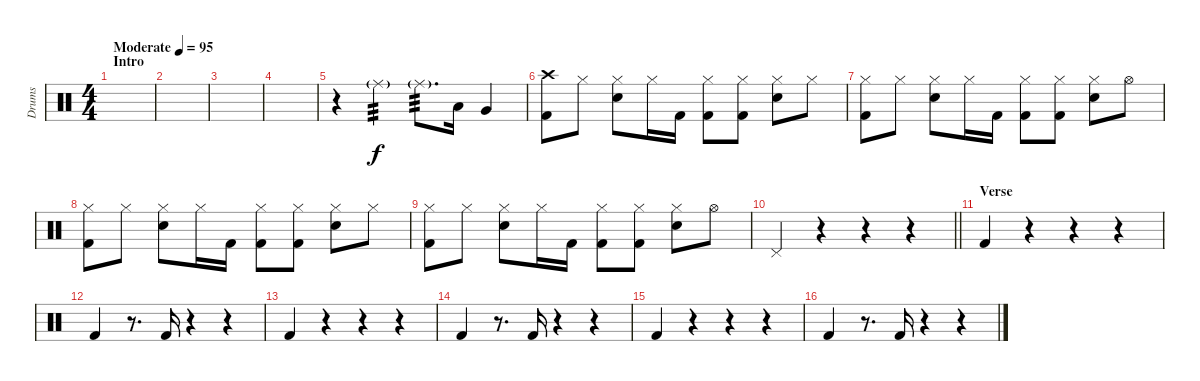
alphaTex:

\track ("Drums" "Drums") {instrument percussion}
\staff {score}
\articulation defaults
\ts (4 4)
\section ("" "Intro")
\tempo (95 "Moderate")
\clef neutral
\ks c
|
|
|
|
r.4 "Ride (middle)"{g}.4{tp 3} "Ride (middle)"{g}.8{d tp 3} "Low Tom (hit)".16{dy f} "Very Low Tom (hit)".4 |
("Crash high (hit)" "Kick (hit) 2").8 "Hi-Hat (closed)".8 ("Hi-Hat (closed)" "Electric Snare (hit)").8 "Hi-Hat (closed)".16 "Kick (hit) 2".16 ("Hi-Hat (closed)" "Kick (hit) 2").8 ("Hi-Hat (closed)" "Kick (hit) 2").8 ("Hi-Hat (closed)" "Electric Snare (hit)").8{txt ""} "Hi-Hat (closed)".8 |
("Hi-Hat (closed)" "Kick (hit) 2").8 "Hi-Hat (closed)".8 ("Hi-Hat (closed)" "Electric Snare (hit)").8 "Hi-Hat (closed)".16 "Kick (hit) 2".16 ("Hi-Hat (closed)" "Kick (hit) 2").8 ("Hi-Hat (closed)" "Kick (hit) 2").8 ("Hi-Hat (closed)" "Electric Snare (hit)").8 "Hi-Hat (open)".8 |
("Hi-Hat (closed)" "Kick (hit) 2").8 "Hi-Hat (closed)".8 ("Hi-Hat (closed)" "Electric Snare (hit)").8 "Hi-Hat (closed)".16 "Kick (hit) 2".16 ("Hi-Hat (closed)" "Kick (hit) 2").8 ("Hi-Hat (closed)" "Kick (hit) 2").8 ("Hi-Hat (closed)" "Electric Snare (hit)").8 "Hi-Hat (closed)".8 |
("Hi-Hat (closed)" "Kick (hit) 2").8 "Hi-Hat (closed)".8 ("Hi-Hat (closed)" "Electric Snare (hit)").8 "Hi-Hat (closed)".16 "Kick (hit) 2".16 ("Hi-Hat (closed)" "Kick (hit) 2").8 ("Hi-Hat (closed)" "Kick (hit) 2").8 ("Hi-Hat (closed)" "Electric Snare (hit)").8 "Hi-Hat (open)".8 |
\barLineRight lightlight "Pedal Hi-Hat (hit)".4
r.4 r.4 r.4 |
\section ("" "Verse")
"Kick (hit) 2".4 r.4 r.4 r.4 |
"Kick (hit) 2".4 r.8{d} "Kick (hit) 2".16 r.4 r.4 |
"Kick (hit) 2".4 r.4 r.4 r.4 |
"Kick (hit) 2".4 r.8{d} "Kick (hit) 2".16 r.4 r.4 |
"Kick (hit) 2".4 r.4 r.4 r.4 |
"Kick (hit) 2".4 r.8{d} "Kick (hit) 2".16 r.4 r.4
